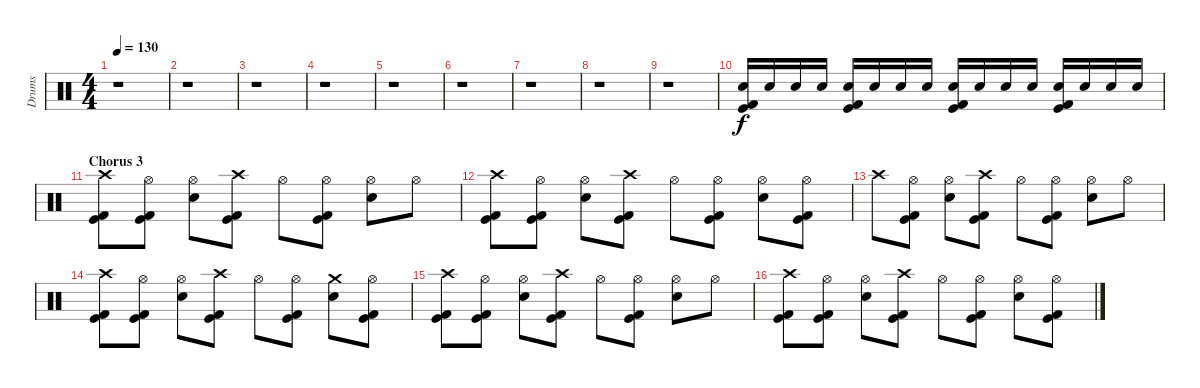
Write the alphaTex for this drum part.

\track ("Drums" "Drums") {instrument percussion}
\staff {score}
\articulation defaults
\ts (4 4)
\tempo 130
\clef neutral
\ks c
r.1{dy f} |
r.1 |
r.1 |
r.1 |
r.1 |
r.1 |
r.1 |
r.1 |
r.1 |
("Electric Snare (hit)" "Kick (hit) 2" "Kick (hit)").16 "Electric Snare (hit)".16 "Electric Snare (hit)".16 "Electric Snare (hit)".16 ("Electric Snare (hit)" "Kick (hit) 2" "Kick (hit)").16 "Electric Snare (hit)".16 "Electric Snare (hit)".16 "Electric Snare (hit)".16 ("Electric Snare (hit)" "Kick (hit) 2" "Kick (hit)").16 "Electric Snare (hit)".16 "Electric Snare (hit)".16 "Electric Snare (hit)".16 ("Electric Snare (hit)" "Kick (hit) 2" "Kick (hit)").16 "Electric Snare (hit)".16 "Electric Snare (hit)".16 "Electric Snare (hit)".16 |
\section ("" "Chorus 3")
("Crash high (hit)" "Kick (hit) 2" "Kick (hit)").8 ("Hi-Hat (open)" "Kick (hit) 2" "Kick (hit)").8 ("Hi-Hat (open)" "Electric Snare (hit)").8 ("Crash high (hit)" "Kick (hit) 2" "Kick (hit)").8 "Hi-Hat (open)".8 ("Hi-Hat (open)" "Kick (hit) 2" "Kick (hit)").8 ("Hi-Hat (open)" "Electric Snare (hit)").8 "Hi-Hat (open)".8 |
("Crash high (hit)" "Kick (hit) 2" "Kick (hit)").8 ("Hi-Hat (open)" "Kick (hit) 2" "Kick (hit)").8 ("Hi-Hat (open)" "Electric Snare (hit)").8 ("Crash high (hit)" "Kick (hit) 2" "Kick (hit)").8 "Hi-Hat (open)".8 ("Hi-Hat (open)" "Kick (hit) 2" "Kick (hit)").8 ("Hi-Hat (open)" "Electric Snare (hit)").8 ("Hi-Hat (open)" "Kick (hit) 2" "Kick (hit)").8 |
"Crash high (hit)".8 ("Hi-Hat (open)" "Kick (hit) 2" "Kick (hit)").8 ("Hi-Hat (open)" "Electric Snare (hit)").8 ("Crash high (hit)" "Kick (hit) 2" "Kick (hit)").8 "Hi-Hat (open)".8 ("Hi-Hat (open)" "Kick (hit) 2" "Kick (hit)").8 ("Hi-Hat (open)" "Electric Snare (hit)").8 "Hi-Hat (open)".8 |
("Crash high (hit)" "Kick (hit) 2" "Kick (hit)").8 ("Hi-Hat (open)" "Kick (hit) 2" "Kick (hit)").8 ("Hi-Hat (open)" "Electric Snare (hit)").8 ("Crash high (hit)" "Kick (hit) 2" "Kick (hit)").8 "Hi-Hat (open)".8 ("Hi-Hat (open)" "Kick (hit) 2" "Kick (hit)").8 ("Crash medium (hit)" "Electric Snare (hit)").8 ("Hi-Hat (open)" "Kick (hit) 2" "Kick (hit)").8 |
("Crash high (hit)" "Kick (hit) 2" "Kick (hit)").8 ("Hi-Hat (open)" "Kick (hit) 2" "Kick (hit)").8 ("Hi-Hat (open)" "Electric Snare (hit)").8 ("Crash high (hit)" "Kick (hit) 2" "Kick (hit)").8 "Hi-Hat (open)".8 ("Hi-Hat (open)" "Kick (hit) 2" "Kick (hit)").8 ("Hi-Hat (open)" "Electric Snare (hit)").8 "Hi-Hat (open)".8 |
("Crash high (hit)" "Kick (hit) 2" "Kick (hit)").8 ("Hi-Hat (open)" "Kick (hit) 2" "Kick (hit)").8 ("Hi-Hat (open)" "Electric Snare (hit)").8 ("Crash high (hit)" "Kick (hit) 2" "Kick (hit)").8 "Hi-Hat (open)".8 ("Hi-Hat (open)" "Kick (hit) 2" "Kick (hit)").8 ("Hi-Hat (open)" "Electric Snare (hit)").8 ("Hi-Hat (open)" "Kick (hit) 2" "Kick (hit)").8
